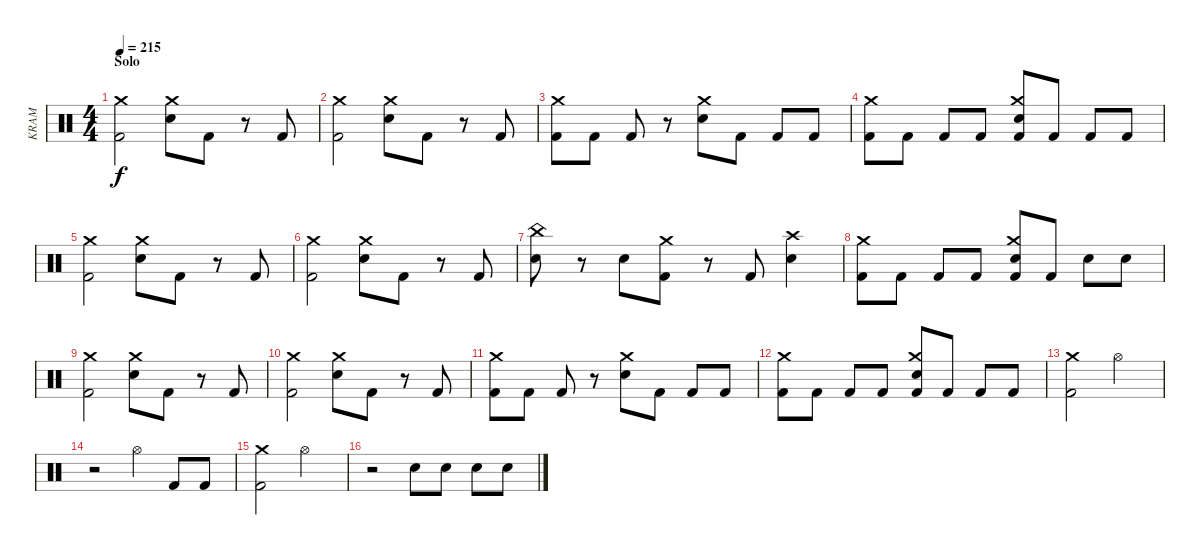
\track ("KRAM" "KRAM") {instrument percussion}
\staff {score}
\articulation defaults
\ts (4 4)
\section ("" "Solo")
\tempo 215
\clef neutral
\ks c
("Kick (hit) 2" "Crash medium (hit)").2{dy f} ("Electric Snare (hit)" "Crash medium (hit)").8 "Kick (hit) 2".8 r.8 "Kick (hit) 2".8 |
("Kick (hit) 2" "Crash medium (hit)").2 ("Electric Snare (hit)" "Crash medium (hit)").8 "Kick (hit) 2".8 r.8 "Kick (hit) 2".8 |
("Kick (hit) 2" "Crash medium (hit)").8 "Kick (hit) 2".8 "Kick (hit) 2".8 r.8 ("Electric Snare (hit)" "Crash medium (hit)").8 "Kick (hit) 2".8 "Kick (hit) 2".8 "Kick (hit) 2".8 |
("Kick (hit) 2" "Crash medium (hit)").8 "Kick (hit) 2".8 "Kick (hit) 2".8 "Kick (hit) 2".8 ("Kick (hit) 2" "Electric Snare (hit)" "Crash medium (hit)").8 "Kick (hit) 2".8 "Kick (hit) 2".8 "Kick (hit) 2".8 |
("Kick (hit) 2" "Crash medium (hit)").2 ("Electric Snare (hit)" "Crash medium (hit)").8 "Kick (hit) 2".8 r.8 "Kick (hit) 2".8 |
("Kick (hit) 2" "Crash medium (hit)").2 ("Electric Snare (hit)" "Crash medium (hit)").8 "Kick (hit) 2".8 r.8 "Kick (hit) 2".8 |
("Electric Snare (hit)" "China (hit)").8 r.8 "Electric Snare (hit)".8 ("Kick (hit) 2" "Crash medium (hit)").8 r.8 "Kick (hit) 2".8 ("Electric Snare (hit)" "Crash high (hit)").4 |
("Kick (hit) 2" "Crash medium (hit)").8 "Kick (hit) 2".8 "Kick (hit) 2".8 "Kick (hit) 2".8 ("Kick (hit) 2" "Electric Snare (hit)" "Crash medium (hit)").8 "Kick (hit) 2".8 "Electric Snare (hit)".8 "Electric Snare (hit)".8 |
("Kick (hit) 2" "Crash medium (hit)").2 ("Electric Snare (hit)" "Crash medium (hit)").8 "Kick (hit) 2".8 r.8 "Kick (hit) 2".8 |
("Kick (hit) 2" "Crash medium (hit)").2 ("Electric Snare (hit)" "Crash medium (hit)").8 "Kick (hit) 2".8 r.8 "Kick (hit) 2".8 |
("Kick (hit) 2" "Crash medium (hit)").8 "Kick (hit) 2".8 "Kick (hit) 2".8 r.8 ("Electric Snare (hit)" "Crash medium (hit)").8 "Kick (hit) 2".8 "Kick (hit) 2".8 "Kick (hit) 2".8 |
("Kick (hit) 2" "Crash medium (hit)").8 "Kick (hit) 2".8 "Kick (hit) 2".8 "Kick (hit) 2".8 ("Kick (hit) 2" "Electric Snare (hit)" "Crash medium (hit)").8 "Kick (hit) 2".8 "Kick (hit) 2".8 "Kick (hit) 2".8 |
("Kick (hit) 2" "Crash medium (hit)").2 "Hi-Hat (open)".2 |
r.2 "Hi-Hat (open)".4 "Kick (hit) 2".8 "Kick (hit) 2".8 |
("Kick (hit) 2" "Crash medium (hit)").2 "Hi-Hat (open)".2 |
r.2 "Electric Snare (hit)".8 "Electric Snare (hit)".8 "Electric Snare (hit)".8 "Electric Snare (hit)".8
